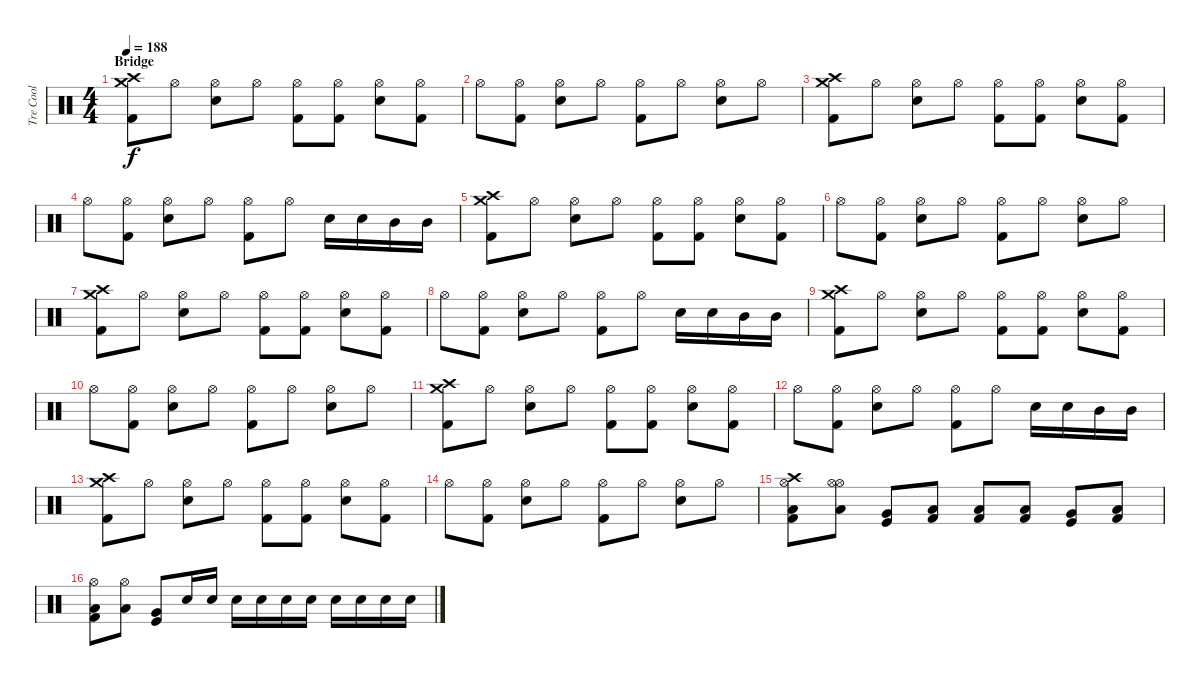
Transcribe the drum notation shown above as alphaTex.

\track ("Tre Cool" "Tre Cool") {instrument percussion}
\staff {score}
\articulation defaults
\ts (4 4)
\section ("" "Bridge")
\tempo 188
\clef neutral
\ks c
("Crash high (hit)" "Crash medium (hit)" "Kick (hit) 2").8{dy f} "Hi-Hat (open)".8 ("Hi-Hat (open)" "Electric Snare (hit)").8 "Hi-Hat (open)".8 ("Hi-Hat (open)" "Kick (hit) 2").8 ("Hi-Hat (open)" "Kick (hit) 2").8 ("Hi-Hat (open)" "Electric Snare (hit)").8 ("Hi-Hat (open)" "Kick (hit) 2").8 |
"Hi-Hat (open)".8 ("Hi-Hat (open)" "Kick (hit) 2").8 ("Hi-Hat (open)" "Electric Snare (hit)").8 "Hi-Hat (open)".8 ("Hi-Hat (open)" "Kick (hit) 2").8 "Hi-Hat (open)".8 ("Hi-Hat (open)" "Electric Snare (hit)").8 "Hi-Hat (open)".8 |
("Crash high (hit)" "Crash medium (hit)" "Kick (hit) 2").8 "Hi-Hat (open)".8 ("Hi-Hat (open)" "Electric Snare (hit)").8 "Hi-Hat (open)".8 ("Hi-Hat (open)" "Kick (hit) 2").8 ("Hi-Hat (open)" "Kick (hit) 2").8 ("Hi-Hat (open)" "Electric Snare (hit)").8 ("Hi-Hat (open)" "Kick (hit) 2").8 |
"Hi-Hat (open)".8 ("Hi-Hat (open)" "Kick (hit) 2").8 ("Hi-Hat (open)" "Electric Snare (hit)").8 "Hi-Hat (open)".8 ("Hi-Hat (open)" "Kick (hit) 2").8 "Hi-Hat (open)".8 "Electric Snare (hit)".16 "Electric Snare (hit)".16 "Mid Tom (hit)".16 "Mid Tom (hit)".16 |
("Crash high (hit)" "Crash medium (hit)" "Kick (hit) 2").8 "Hi-Hat (open)".8 ("Hi-Hat (open)" "Electric Snare (hit)").8 "Hi-Hat (open)".8 ("Hi-Hat (open)" "Kick (hit) 2").8 ("Hi-Hat (open)" "Kick (hit) 2").8 ("Hi-Hat (open)" "Electric Snare (hit)").8 ("Hi-Hat (open)" "Kick (hit) 2").8 |
"Hi-Hat (open)".8 ("Hi-Hat (open)" "Kick (hit) 2").8 ("Hi-Hat (open)" "Electric Snare (hit)").8 "Hi-Hat (open)".8 ("Hi-Hat (open)" "Kick (hit) 2").8 "Hi-Hat (open)".8 ("Hi-Hat (open)" "Electric Snare (hit)").8 "Hi-Hat (open)".8 |
("Crash high (hit)" "Crash medium (hit)" "Kick (hit) 2").8 "Hi-Hat (open)".8 ("Hi-Hat (open)" "Electric Snare (hit)").8 "Hi-Hat (open)".8 ("Hi-Hat (open)" "Kick (hit) 2").8 ("Hi-Hat (open)" "Kick (hit) 2").8 ("Hi-Hat (open)" "Electric Snare (hit)").8 ("Hi-Hat (open)" "Kick (hit) 2").8 |
"Hi-Hat (open)".8 ("Hi-Hat (open)" "Kick (hit) 2").8 ("Hi-Hat (open)" "Electric Snare (hit)").8 "Hi-Hat (open)".8 ("Hi-Hat (open)" "Kick (hit) 2").8 "Hi-Hat (open)".8 "Electric Snare (hit)".16 "Electric Snare (hit)".16 "Mid Tom (hit)".16 "Mid Tom (hit)".16 |
("Crash high (hit)" "Crash medium (hit)" "Kick (hit) 2").8 "Hi-Hat (open)".8 ("Hi-Hat (open)" "Electric Snare (hit)").8 "Hi-Hat (open)".8 ("Hi-Hat (open)" "Kick (hit) 2").8 ("Hi-Hat (open)" "Kick (hit) 2").8 ("Hi-Hat (open)" "Electric Snare (hit)").8 ("Hi-Hat (open)" "Kick (hit) 2").8 |
"Hi-Hat (open)".8 ("Hi-Hat (open)" "Kick (hit) 2").8 ("Hi-Hat (open)" "Electric Snare (hit)").8 "Hi-Hat (open)".8 ("Hi-Hat (open)" "Kick (hit) 2").8 "Hi-Hat (open)".8 ("Hi-Hat (open)" "Electric Snare (hit)").8 "Hi-Hat (open)".8 |
("Crash high (hit)" "Crash medium (hit)" "Kick (hit) 2").8 "Hi-Hat (open)".8 ("Hi-Hat (open)" "Electric Snare (hit)").8 "Hi-Hat (open)".8 ("Hi-Hat (open)" "Kick (hit) 2").8 ("Hi-Hat (open)" "Kick (hit) 2").8 ("Hi-Hat (open)" "Electric Snare (hit)").8 ("Hi-Hat (open)" "Kick (hit) 2").8 |
"Hi-Hat (open)".8 ("Hi-Hat (open)" "Kick (hit) 2").8 ("Hi-Hat (open)" "Electric Snare (hit)").8 "Hi-Hat (open)".8 ("Hi-Hat (open)" "Kick (hit) 2").8 "Hi-Hat (open)".8 "Electric Snare (hit)".16 "Electric Snare (hit)".16 "Mid Tom (hit)".16 "Mid Tom (hit)".16 |
("Crash high (hit)" "Crash medium (hit)" "Kick (hit) 2").8 "Hi-Hat (open)".8 ("Hi-Hat (open)" "Electric Snare (hit)").8 "Hi-Hat (open)".8 ("Hi-Hat (open)" "Kick (hit) 2").8 ("Hi-Hat (open)" "Kick (hit) 2").8 ("Hi-Hat (open)" "Electric Snare (hit)").8 ("Hi-Hat (open)" "Kick (hit) 2").8 |
"Hi-Hat (open)".8 ("Hi-Hat (open)" "Kick (hit) 2").8 ("Hi-Hat (open)" "Electric Snare (hit)").8 "Hi-Hat (open)".8 ("Hi-Hat (open)" "Kick (hit) 2").8 "Hi-Hat (open)".8 ("Hi-Hat (open)" "Electric Snare (hit)").8 "Hi-Hat (open)".8 |
("Crash high (hit)" "Hi-Hat (open)" "Low Floor Tom (hit)" "Kick (hit) 2").8 ("Hi-Hat (open)" "Hi-Hat (open)" "Low Floor Tom (hit)").8 ("Kick (hit)" "Very Low Tom (hit)").8 ("Kick (hit) 2" "Low Floor Tom (hit)").8 ("Kick (hit) 2" "Low Floor Tom (hit)").8 ("Kick (hit) 2" "Low Floor Tom (hit)").8 ("Kick (hit)" "Very Low Tom (hit)").8 ("Kick (hit) 2" "Low Floor Tom (hit)").8 |
("Hi-Hat (open)" "Low Floor Tom (hit)" "Kick (hit) 2").8 ("Hi-Hat (open)" "Low Floor Tom (hit)").8 ("Kick (hit)" "Very Low Tom (hit)").8 "Electric Snare (hit)".16 "Electric Snare (hit)".16 "Electric Snare (hit)".16 "Electric Snare (hit)".16 "Electric Snare (hit)".16 "Electric Snare (hit)".16 "Electric Snare (hit)".16 "Electric Snare (hit)".16 "Electric Snare (hit)".16 "Electric Snare (hit)".16
